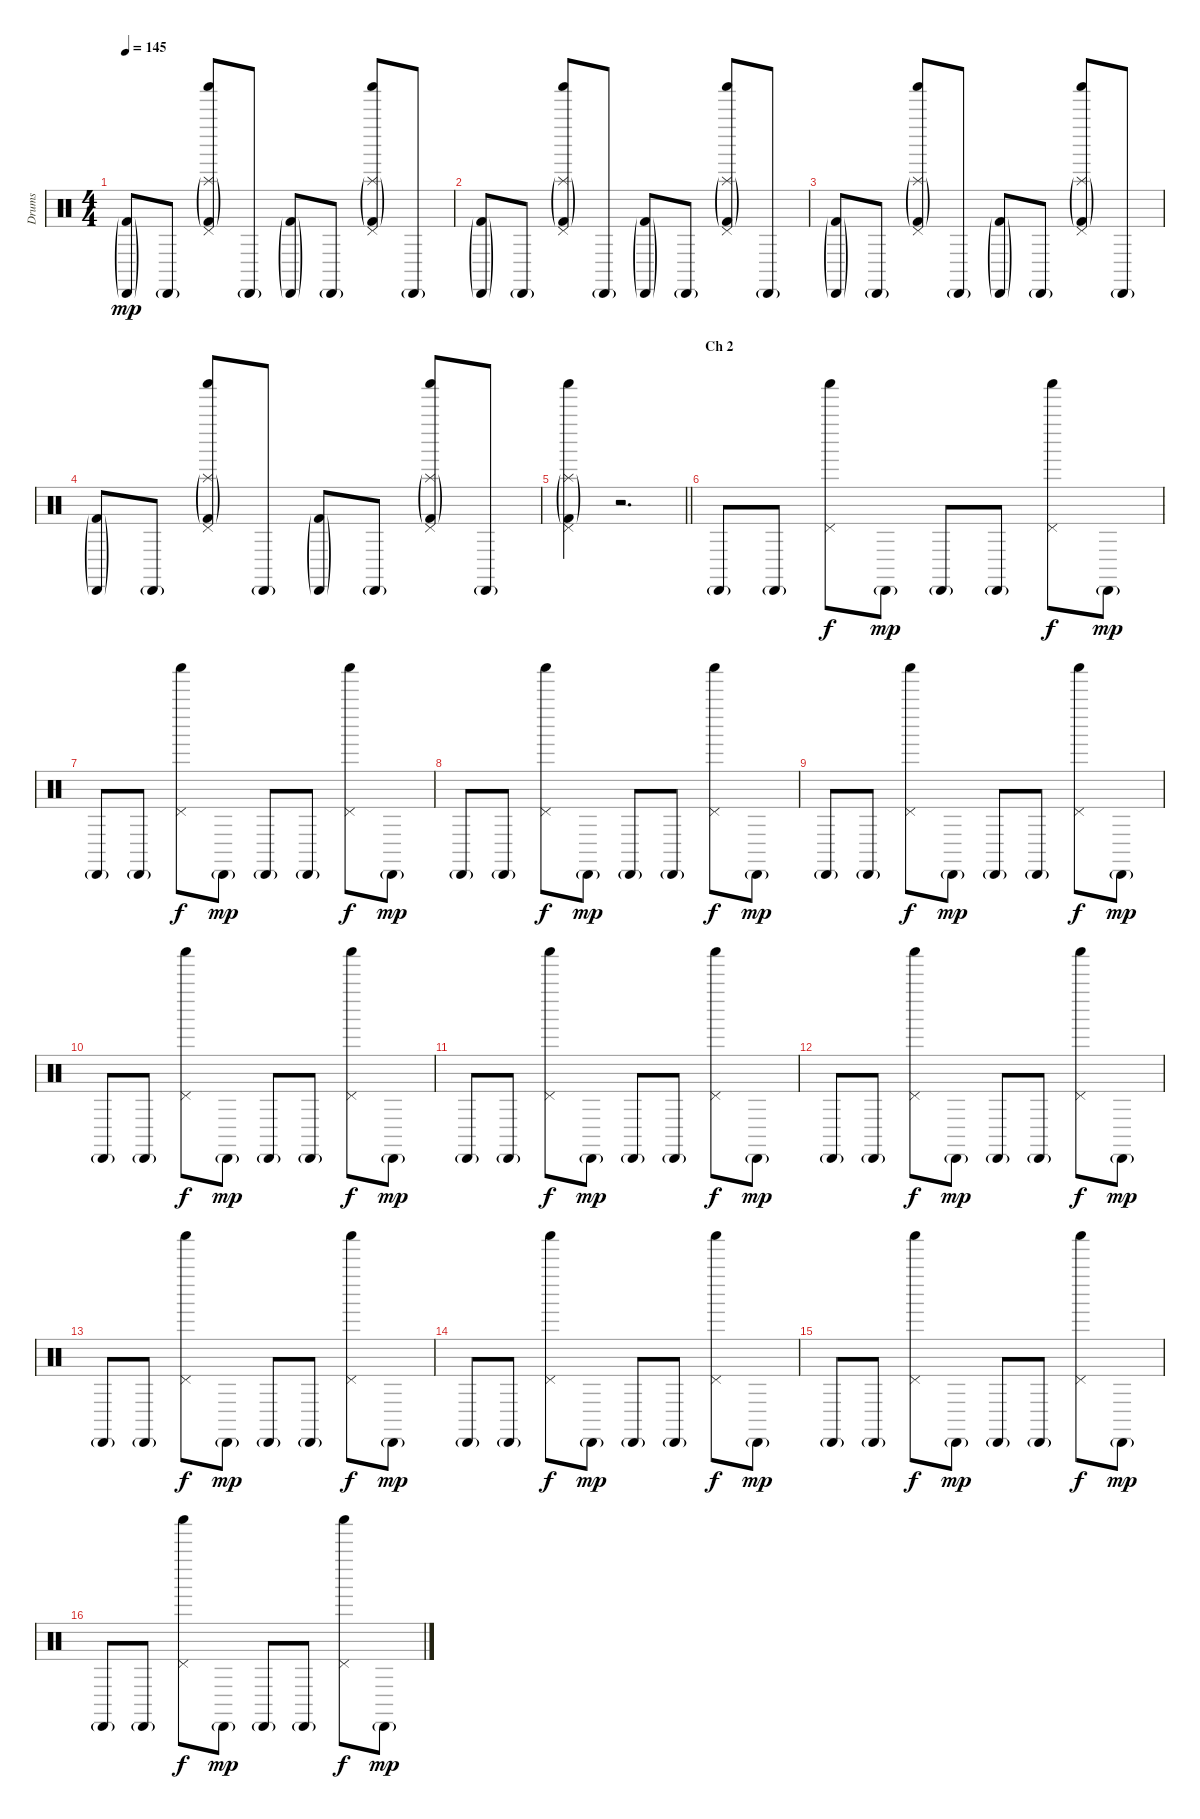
\track ("Drums" "Drums") {instrument percussion}
\staff {score}
\articulation defaults
\ts (4 4)
\tempo 145
\clef neutral
\ks c
("Cabasa (hit)"{g} "Kick (hit) 2"{g}).8{dy mp} "Cabasa (hit)"{g}.8 ("Shaker (hit)" "Pedal Hi-Hat (hit)" "Splash (hit)"{g} "Kick (hit) 2"{g}).8 "Cabasa (hit)"{g}.8 ("Cabasa (hit)"{g} "Kick (hit) 2"{g}).8 "Cabasa (hit)"{g}.8 ("Shaker (hit)" "Pedal Hi-Hat (hit)" "Splash (hit)"{g} "Kick (hit) 2"{g}).8 "Cabasa (hit)"{g}.8 |
("Cabasa (hit)"{g} "Kick (hit) 2"{g}).8 "Cabasa (hit)"{g}.8 ("Shaker (hit)" "Pedal Hi-Hat (hit)" "Splash (hit)"{g} "Kick (hit) 2"{g}).8 "Cabasa (hit)"{g}.8 ("Cabasa (hit)"{g} "Kick (hit) 2"{g}).8 "Cabasa (hit)"{g}.8 ("Shaker (hit)" "Pedal Hi-Hat (hit)" "Splash (hit)"{g} "Kick (hit) 2"{g}).8 "Cabasa (hit)"{g}.8 |
("Cabasa (hit)"{g} "Kick (hit) 2"{g}).8 "Cabasa (hit)"{g}.8 ("Shaker (hit)" "Pedal Hi-Hat (hit)" "Splash (hit)"{g} "Kick (hit) 2"{g}).8 "Cabasa (hit)"{g}.8 ("Cabasa (hit)"{g} "Kick (hit) 2"{g}).8 "Cabasa (hit)"{g}.8 ("Shaker (hit)" "Pedal Hi-Hat (hit)" "Splash (hit)"{g} "Kick (hit) 2"{g}).8 "Cabasa (hit)"{g}.8 |
("Cabasa (hit)"{g} "Kick (hit) 2"{g}).8 "Cabasa (hit)"{g}.8 ("Shaker (hit)" "Pedal Hi-Hat (hit)" "Splash (hit)"{g} "Kick (hit) 2"{g}).8 "Cabasa (hit)"{g}.8 ("Cabasa (hit)"{g} "Kick (hit) 2"{g}).8 "Cabasa (hit)"{g}.8 ("Shaker (hit)" "Pedal Hi-Hat (hit)" "Splash (hit)"{g} "Kick (hit) 2"{g}).8 "Cabasa (hit)"{g}.8 |
\barLineRight lightlight
("Shaker (hit)" "Pedal Hi-Hat (hit)" "Splash (hit)"{g} "Kick (hit) 2"{g}).4 r.2{d} |
\section ("" "Ch 2")
"Cabasa (hit)"{g}.8 "Cabasa (hit)"{g}.8 ("Shaker (hit)" "Pedal Hi-Hat (hit)").8{dy f} "Cabasa (hit)"{g}.8{dy mp} "Cabasa (hit)"{g}.8 "Cabasa (hit)"{g}.8 ("Shaker (hit)" "Pedal Hi-Hat (hit)").8{dy f} "Cabasa (hit)"{g}.8{dy mp} |
"Cabasa (hit)"{g}.8 "Cabasa (hit)"{g}.8 ("Shaker (hit)" "Pedal Hi-Hat (hit)").8{dy f} "Cabasa (hit)"{g}.8{dy mp} "Cabasa (hit)"{g}.8 "Cabasa (hit)"{g}.8 ("Shaker (hit)" "Pedal Hi-Hat (hit)").8{dy f} "Cabasa (hit)"{g}.8{dy mp} |
"Cabasa (hit)"{g}.8 "Cabasa (hit)"{g}.8 ("Shaker (hit)" "Pedal Hi-Hat (hit)").8{dy f} "Cabasa (hit)"{g}.8{dy mp} "Cabasa (hit)"{g}.8 "Cabasa (hit)"{g}.8 ("Shaker (hit)" "Pedal Hi-Hat (hit)").8{dy f} "Cabasa (hit)"{g}.8{dy mp} |
"Cabasa (hit)"{g}.8 "Cabasa (hit)"{g}.8 ("Shaker (hit)" "Pedal Hi-Hat (hit)").8{dy f} "Cabasa (hit)"{g}.8{dy mp} "Cabasa (hit)"{g}.8 "Cabasa (hit)"{g}.8 ("Shaker (hit)" "Pedal Hi-Hat (hit)").8{dy f} "Cabasa (hit)"{g}.8{dy mp} |
"Cabasa (hit)"{g}.8 "Cabasa (hit)"{g}.8 ("Shaker (hit)" "Pedal Hi-Hat (hit)").8{dy f} "Cabasa (hit)"{g}.8{dy mp} "Cabasa (hit)"{g}.8 "Cabasa (hit)"{g}.8 ("Shaker (hit)" "Pedal Hi-Hat (hit)").8{dy f} "Cabasa (hit)"{g}.8{dy mp} |
"Cabasa (hit)"{g}.8 "Cabasa (hit)"{g}.8 ("Shaker (hit)" "Pedal Hi-Hat (hit)").8{dy f} "Cabasa (hit)"{g}.8{dy mp} "Cabasa (hit)"{g}.8 "Cabasa (hit)"{g}.8 ("Shaker (hit)" "Pedal Hi-Hat (hit)").8{dy f} "Cabasa (hit)"{g}.8{dy mp} |
"Cabasa (hit)"{g}.8 "Cabasa (hit)"{g}.8 ("Shaker (hit)" "Pedal Hi-Hat (hit)").8{dy f} "Cabasa (hit)"{g}.8{dy mp} "Cabasa (hit)"{g}.8 "Cabasa (hit)"{g}.8 ("Shaker (hit)" "Pedal Hi-Hat (hit)").8{dy f} "Cabasa (hit)"{g}.8{dy mp} |
"Cabasa (hit)"{g}.8 "Cabasa (hit)"{g}.8 ("Shaker (hit)" "Pedal Hi-Hat (hit)").8{dy f} "Cabasa (hit)"{g}.8{dy mp} "Cabasa (hit)"{g}.8 "Cabasa (hit)"{g}.8 ("Shaker (hit)" "Pedal Hi-Hat (hit)").8{dy f} "Cabasa (hit)"{g}.8{dy mp} |
"Cabasa (hit)"{g}.8 "Cabasa (hit)"{g}.8 ("Shaker (hit)" "Pedal Hi-Hat (hit)").8{dy f} "Cabasa (hit)"{g}.8{dy mp} "Cabasa (hit)"{g}.8 "Cabasa (hit)"{g}.8 ("Shaker (hit)" "Pedal Hi-Hat (hit)").8{dy f} "Cabasa (hit)"{g}.8{dy mp} |
"Cabasa (hit)"{g}.8 "Cabasa (hit)"{g}.8 ("Shaker (hit)" "Pedal Hi-Hat (hit)").8{dy f} "Cabasa (hit)"{g}.8{dy mp} "Cabasa (hit)"{g}.8 "Cabasa (hit)"{g}.8 ("Shaker (hit)" "Pedal Hi-Hat (hit)").8{dy f} "Cabasa (hit)"{g}.8{dy mp} |
"Cabasa (hit)"{g}.8 "Cabasa (hit)"{g}.8 ("Shaker (hit)" "Pedal Hi-Hat (hit)").8{dy f} "Cabasa (hit)"{g}.8{dy mp} "Cabasa (hit)"{g}.8 "Cabasa (hit)"{g}.8 ("Shaker (hit)" "Pedal Hi-Hat (hit)").8{dy f} "Cabasa (hit)"{g}.8{dy mp}
